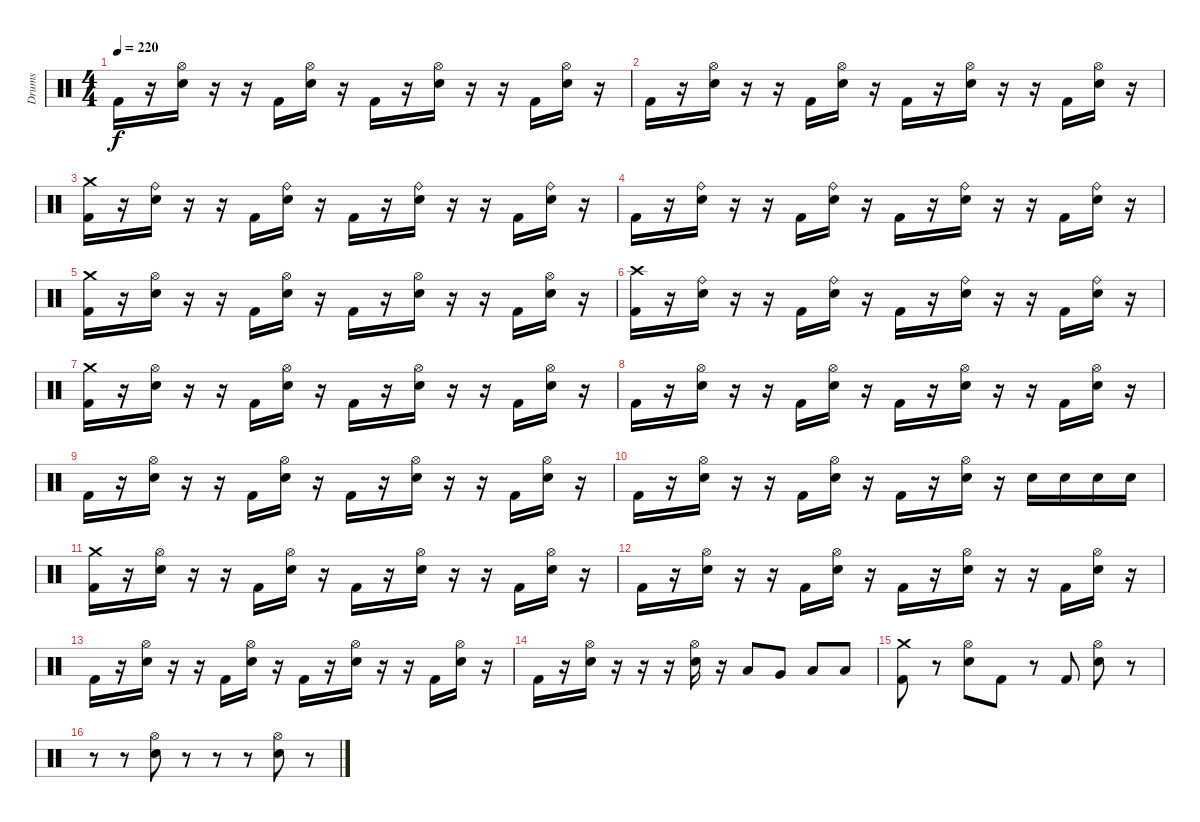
\track ("Drums" "Drums") {instrument percussion}
\staff {score}
\articulation defaults
\ts (4 4)
\tempo 220
\clef neutral
\ks c "Kick (hit) 2".16{dy f}
r.16 ("Hi-Hat (open)" "Snare (hit) 2").16 r.16 r.16 "Kick (hit) 2".16 ("Hi-Hat (open)" "Snare (hit) 2").16 r.16 "Kick (hit) 2".16 r.16 ("Hi-Hat (open)" "Snare (hit) 2").16 r.16 r.16 "Kick (hit) 2".16 ("Hi-Hat (open)" "Snare (hit) 2").16 r.16 |
"Kick (hit) 2".16 r.16 ("Hi-Hat (open)" "Snare (hit) 2").16 r.16 r.16 "Kick (hit) 2".16 ("Hi-Hat (open)" "Snare (hit) 2").16 r.16 "Kick (hit) 2".16 r.16 ("Hi-Hat (open)" "Snare (hit) 2").16 r.16 r.16 "Kick (hit) 2".16 ("Hi-Hat (open)" "Snare (hit) 2").16 r.16 |
("Crash medium (hit)" "Kick (hit) 2").16 r.16 ("Ride (bell)" "Snare (hit) 2").16 r.16 r.16 "Kick (hit) 2".16 ("Ride (bell)" "Snare (hit) 2").16 r.16 "Kick (hit) 2".16 r.16 ("Ride (bell)" "Snare (hit) 2").16 r.16 r.16 "Kick (hit) 2".16 ("Ride (bell)" "Snare (hit) 2").16 r.16 |
"Kick (hit) 2".16 r.16 ("Ride (bell)" "Snare (hit) 2").16 r.16 r.16 "Kick (hit) 2".16 ("Ride (bell)" "Snare (hit) 2").16 r.16 "Kick (hit) 2".16 r.16 ("Ride (bell)" "Snare (hit) 2").16 r.16 r.16 "Kick (hit) 2".16 ("Ride (bell)" "Snare (hit) 2").16 r.16 |
("Crash medium (hit)" "Kick (hit) 2").16 r.16 ("Hi-Hat (open)" "Snare (hit) 2").16 r.16 r.16 "Kick (hit) 2".16 ("Hi-Hat (open)" "Snare (hit) 2").16 r.16 "Kick (hit) 2".16 r.16 ("Hi-Hat (open)" "Snare (hit) 2").16 r.16 r.16 "Kick (hit) 2".16 ("Hi-Hat (open)" "Snare (hit) 2").16 r.16 |
("Crash high (hit)" "Kick (hit) 2").16 r.16 ("Ride (bell)" "Snare (hit) 2").16 r.16 r.16 "Kick (hit) 2".16 ("Ride (bell)" "Snare (hit) 2").16 r.16 "Kick (hit) 2".16 r.16 ("Ride (bell)" "Snare (hit) 2").16 r.16 r.16 "Kick (hit) 2".16 ("Ride (bell)" "Snare (hit) 2").16 r.16 |
("Crash medium (hit)" "Kick (hit) 2").16 r.16 ("Hi-Hat (open)" "Snare (hit) 2").16 r.16 r.16 "Kick (hit) 2".16 ("Hi-Hat (open)" "Snare (hit) 2").16 r.16 "Kick (hit) 2".16 r.16 ("Hi-Hat (open)" "Snare (hit) 2").16 r.16 r.16 "Kick (hit) 2".16 ("Hi-Hat (open)" "Snare (hit) 2").16 r.16 |
"Kick (hit) 2".16 r.16 ("Hi-Hat (open)" "Snare (hit) 2").16 r.16 r.16 "Kick (hit) 2".16 ("Hi-Hat (open)" "Snare (hit) 2").16 r.16 "Kick (hit) 2".16 r.16 ("Hi-Hat (open)" "Snare (hit) 2").16 r.16 r.16 "Kick (hit) 2".16 ("Hi-Hat (open)" "Snare (hit) 2").16 r.16 |
"Kick (hit) 2".16 r.16 ("Hi-Hat (open)" "Snare (hit) 2").16 r.16 r.16 "Kick (hit) 2".16 ("Hi-Hat (open)" "Snare (hit) 2").16 r.16 "Kick (hit) 2".16 r.16 ("Hi-Hat (open)" "Snare (hit) 2").16 r.16 r.16 "Kick (hit) 2".16 ("Hi-Hat (open)" "Snare (hit) 2").16 r.16 |
"Kick (hit) 2".16 r.16 ("Hi-Hat (open)" "Snare (hit) 2").16 r.16 r.16 "Kick (hit) 2".16 ("Hi-Hat (open)" "Snare (hit) 2").16 r.16 "Kick (hit) 2".16 r.16 ("Hi-Hat (open)" "Snare (hit) 2").16 r.16 "Snare (hit) 2".16 "Snare (hit) 2".16 "Snare (hit) 2".16 "Snare (hit) 2".16 |
("Crash medium (hit)" "Kick (hit) 2").16 r.16 ("Hi-Hat (open)" "Snare (hit) 2").16 r.16 r.16 "Kick (hit) 2".16 ("Hi-Hat (open)" "Snare (hit) 2").16 r.16 "Kick (hit) 2".16 r.16 ("Hi-Hat (open)" "Snare (hit) 2").16 r.16 r.16 "Kick (hit) 2".16 ("Hi-Hat (open)" "Snare (hit) 2").16 r.16 |
"Kick (hit) 2".16 r.16 ("Hi-Hat (open)" "Snare (hit) 2").16 r.16 r.16 "Kick (hit) 2".16 ("Hi-Hat (open)" "Snare (hit) 2").16 r.16 "Kick (hit) 2".16 r.16 ("Hi-Hat (open)" "Snare (hit) 2").16 r.16 r.16 "Kick (hit) 2".16 ("Hi-Hat (open)" "Snare (hit) 2").16 r.16 |
"Kick (hit) 2".16 r.16 ("Hi-Hat (open)" "Snare (hit) 2").16 r.16 r.16 "Kick (hit) 2".16 ("Hi-Hat (open)" "Snare (hit) 2").16 r.16 "Kick (hit) 2".16 r.16 ("Hi-Hat (open)" "Snare (hit) 2").16 r.16 r.16 "Kick (hit) 2".16 ("Hi-Hat (open)" "Snare (hit) 2").16 r.16 |
"Kick (hit) 2".16 r.16 ("Hi-Hat (open)" "Snare (hit) 2").16 r.16 r.16 r.16 ("Hi-Hat (open)" "Snare (hit) 2").16 r.16 "Low Tom (hit)".8 "Very Low Tom (hit)".8 "Low Floor Tom (hit)".8 "Low Floor Tom (hit)".8 |
("Crash medium (hit)" "Kick (hit) 2").8 r.8 ("Hi-Hat (open)" "Snare (hit) 2").8 "Kick (hit) 2".8 r.8 "Kick (hit) 2".8 ("Hi-Hat (open)" "Snare (hit) 2").8 r.8 |
r.8 r.8 ("Hi-Hat (open)" "Snare (hit) 2").8 r.8 r.8 r.8 ("Hi-Hat (open)" "Snare (hit) 2").8 r.8
